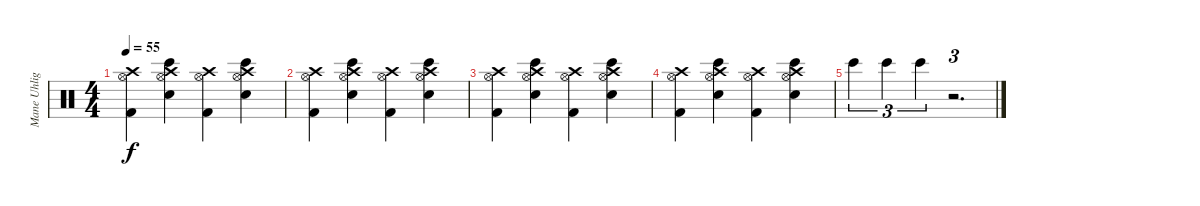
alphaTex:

\track ("Mane Uhlig" "Mane Uhlig") {instrument percussion}
\staff {score}
\articulation defaults
\ts (4 4)
\tempo 55
\clef neutral
\ks c
("Hi-Hat (open)" "Crash high (hit)" "Kick (hit) 2").4{dy f} ("Hi-Hat (open)" "Crash high (hit)" "Snare (hit) 2" "Bongo High (hit)").4 ("Hi-Hat (open)" "Crash high (hit)" "Kick (hit) 2").4 ("Hi-Hat (open)" "Crash high (hit)" "Snare (hit) 2" "Bongo High (hit)").4 |
("Hi-Hat (open)" "Crash high (hit)" "Kick (hit) 2").4 ("Hi-Hat (open)" "Crash high (hit)" "Snare (hit) 2" "Bongo High (hit)").4 ("Hi-Hat (open)" "Crash high (hit)" "Kick (hit) 2").4 ("Hi-Hat (open)" "Crash high (hit)" "Snare (hit) 2" "Bongo High (hit)").4 |
("Hi-Hat (open)" "Crash high (hit)" "Kick (hit) 2").4 ("Hi-Hat (open)" "Crash high (hit)" "Snare (hit) 2" "Bongo High (hit)").4 ("Hi-Hat (open)" "Crash high (hit)" "Kick (hit) 2").4 ("Hi-Hat (open)" "Crash high (hit)" "Snare (hit) 2" "Bongo High (hit)").4 |
("Hi-Hat (open)" "Crash high (hit)" "Kick (hit) 2").4 ("Hi-Hat (open)" "Crash high (hit)" "Snare (hit) 2" "Bongo High (hit)").4 ("Hi-Hat (open)" "Crash high (hit)" "Kick (hit) 2").4 ("Hi-Hat (open)" "Crash high (hit)" "Snare (hit) 2" "Bongo High (hit)").4 |
"Bongo High (hit)".4{tu (3 2)} "Bongo High (hit)".4{tu (3 2)} "Bongo High (hit)".4{tu (3 2)} r.2{d tu (3 2)}
